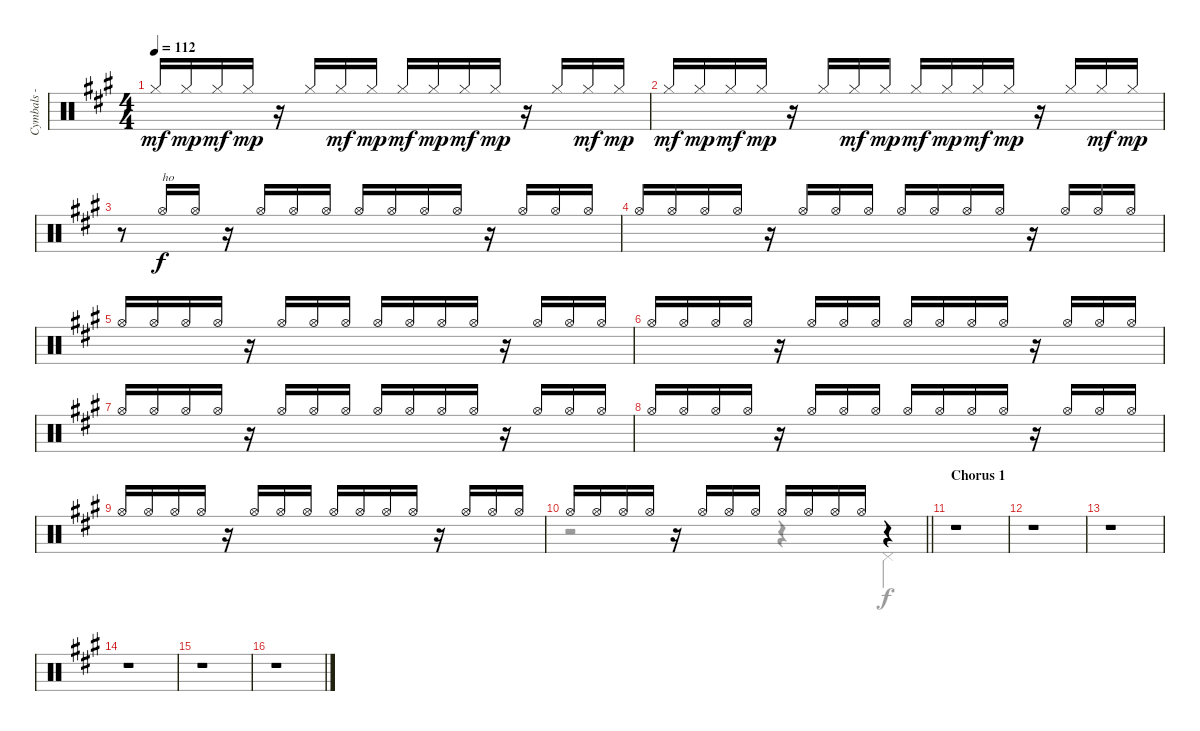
\track ("Cymbals - hi-hat" "Cymbals - ") {instrument percussion}
\staff {score}
\articulation defaults
\voice
\ts (4 4)
\tempo 112
\clef neutral
\ks f#minor "Hi-Hat (closed)".16{dy mf beam Up} "Hi-Hat (closed)".16{dy mp beam Up} "Hi-Hat (closed)".16{dy mf beam Up} "Hi-Hat (closed)".16{dy mp beam Up}
r.16 "Hi-Hat (closed)".16{beam Up} "Hi-Hat (closed)".16{dy mf beam Up} "Hi-Hat (closed)".16{dy mp beam Up} "Hi-Hat (closed)".16{dy mf beam Up} "Hi-Hat (closed)".16{dy mp beam Up} "Hi-Hat (closed)".16{dy mf beam Up} "Hi-Hat (closed)".16{dy mp beam Up} r.16 "Hi-Hat (closed)".16{beam Up} "Hi-Hat (closed)".16{dy mf beam Up} "Hi-Hat (closed)".16{dy mp beam Up} |
"Hi-Hat (closed)".16{dy mf beam Up} "Hi-Hat (closed)".16{dy mp beam Up} "Hi-Hat (closed)".16{dy mf beam Up} "Hi-Hat (closed)".16{dy mp beam Up} r.16 "Hi-Hat (closed)".16{beam Up} "Hi-Hat (closed)".16{dy mf beam Up} "Hi-Hat (closed)".16{dy mp beam Up} "Hi-Hat (closed)".16{dy mf beam Up} "Hi-Hat (closed)".16{dy mp beam Up} "Hi-Hat (closed)".16{dy mf beam Up} "Hi-Hat (closed)".16{dy mp beam Up} r.16 "Hi-Hat (closed)".16{beam Up} "Hi-Hat (closed)".16{dy mf beam Up} "Hi-Hat (closed)".16{dy mp beam Up} |
r.8{volume 4} "Hi-Hat (open)".16{txt "ho" dy f beam Up} "Hi-Hat (open)".16{beam Up} r.16 "Hi-Hat (open)".16{beam Up} "Hi-Hat (open)".16{beam Up} "Hi-Hat (open)".16{beam Up} "Hi-Hat (open)".16{beam Up} "Hi-Hat (open)".16{beam Up} "Hi-Hat (open)".16{beam Up} "Hi-Hat (open)".16{beam Up} r.16 "Hi-Hat (open)".16{beam Up} "Hi-Hat (open)".16{beam Up} "Hi-Hat (open)".16{beam Up} |
"Hi-Hat (open)".16{beam Up} "Hi-Hat (open)".16{beam Up} "Hi-Hat (open)".16{beam Up} "Hi-Hat (open)".16{beam Up} r.16 "Hi-Hat (open)".16{beam Up} "Hi-Hat (open)".16{beam Up} "Hi-Hat (open)".16{beam Up} "Hi-Hat (open)".16{beam Up} "Hi-Hat (open)".16{beam Up} "Hi-Hat (open)".16{beam Up} "Hi-Hat (open)".16{beam Up} r.16 "Hi-Hat (open)".16{beam Up} "Hi-Hat (open)".16{beam Up} "Hi-Hat (open)".16{beam Up} |
"Hi-Hat (open)".16{beam Up} "Hi-Hat (open)".16{beam Up} "Hi-Hat (open)".16{beam Up} "Hi-Hat (open)".16{beam Up} r.16 "Hi-Hat (open)".16{beam Up} "Hi-Hat (open)".16{beam Up} "Hi-Hat (open)".16{beam Up} "Hi-Hat (open)".16{beam Up} "Hi-Hat (open)".16{beam Up} "Hi-Hat (open)".16{beam Up} "Hi-Hat (open)".16{beam Up} r.16 "Hi-Hat (open)".16{beam Up} "Hi-Hat (open)".16{beam Up} "Hi-Hat (open)".16{beam Up} |
"Hi-Hat (open)".16{beam Up} "Hi-Hat (open)".16{beam Up} "Hi-Hat (open)".16{beam Up} "Hi-Hat (open)".16{beam Up} r.16 "Hi-Hat (open)".16{beam Up} "Hi-Hat (open)".16{beam Up} "Hi-Hat (open)".16{beam Up} "Hi-Hat (open)".16{beam Up} "Hi-Hat (open)".16{beam Up} "Hi-Hat (open)".16{beam Up} "Hi-Hat (open)".16{beam Up} r.16 "Hi-Hat (open)".16{beam Up} "Hi-Hat (open)".16{beam Up} "Hi-Hat (open)".16{beam Up} |
"Hi-Hat (open)".16{beam Up} "Hi-Hat (open)".16{beam Up} "Hi-Hat (open)".16{beam Up} "Hi-Hat (open)".16{beam Up} r.16 "Hi-Hat (open)".16{beam Up} "Hi-Hat (open)".16{beam Up} "Hi-Hat (open)".16{beam Up} "Hi-Hat (open)".16{beam Up} "Hi-Hat (open)".16{beam Up} "Hi-Hat (open)".16{beam Up} "Hi-Hat (open)".16{beam Up} r.16 "Hi-Hat (open)".16{beam Up} "Hi-Hat (open)".16{beam Up} "Hi-Hat (open)".16{beam Up} |
"Hi-Hat (open)".16{beam Up} "Hi-Hat (open)".16{beam Up} "Hi-Hat (open)".16{beam Up} "Hi-Hat (open)".16{beam Up} r.16 "Hi-Hat (open)".16{beam Up} "Hi-Hat (open)".16{beam Up} "Hi-Hat (open)".16{beam Up} "Hi-Hat (open)".16{beam Up} "Hi-Hat (open)".16{beam Up} "Hi-Hat (open)".16{beam Up} "Hi-Hat (open)".16{beam Up} r.16 "Hi-Hat (open)".16{beam Up} "Hi-Hat (open)".16{beam Up} "Hi-Hat (open)".16{beam Up} |
"Hi-Hat (open)".16{beam Up} "Hi-Hat (open)".16{beam Up} "Hi-Hat (open)".16{beam Up} "Hi-Hat (open)".16{beam Up} r.16 "Hi-Hat (open)".16{beam Up} "Hi-Hat (open)".16{beam Up} "Hi-Hat (open)".16{beam Up} "Hi-Hat (open)".16{beam Up} "Hi-Hat (open)".16{beam Up} "Hi-Hat (open)".16{beam Up} "Hi-Hat (open)".16{beam Up} r.16 "Hi-Hat (open)".16{beam Up} "Hi-Hat (open)".16{beam Up} "Hi-Hat (open)".16{beam Up} |
\barLineRight lightlight "Hi-Hat (open)".16{beam Up} "Hi-Hat (open)".16{beam Up} "Hi-Hat (open)".16{beam Up} "Hi-Hat (open)".16{beam Up}
r.16 "Hi-Hat (open)".16{beam Up} "Hi-Hat (open)".16{beam Up} "Hi-Hat (open)".16{beam Up} "Hi-Hat (open)".16{beam Up} "Hi-Hat (open)".16{beam Up} "Hi-Hat (open)".16{beam Up} "Hi-Hat (open)".16{beam Up} r.4 |
\section ("" "Chorus 1")
r.1 |
r.1 |
r.1 |
r.1 |
r.1 |
r.1
\voice
\clef neutral
\ottava regular
\simile none
\ks f#minor
|
|
|
|
|
|
|
|
|
\barLineRight lightlight
r.2 r.4 "Pedal Hi-Hat (hit)".4 |
|
|
|
|
|
